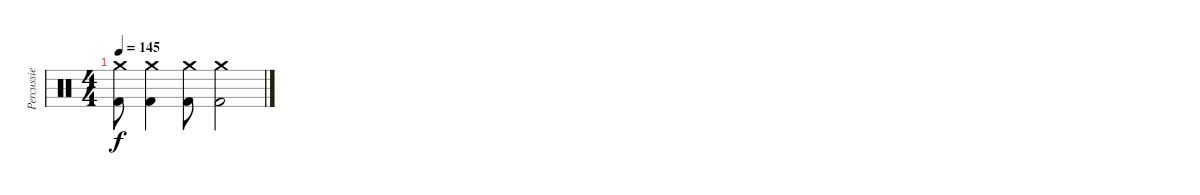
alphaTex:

\track ("Percussie" "Percussie") {instrument percussion}
\staff {score}
\articulation defaults
\ts (4 4)
\tempo 145
\clef neutral
\ks c
("Crash medium (hit)" "Kick (hit) 2").8{dy f} ("Crash medium (hit)" "Kick (hit) 2").4 ("Crash medium (hit)" "Kick (hit) 2").8 ("Crash medium (hit)" "Kick (hit) 2").2
